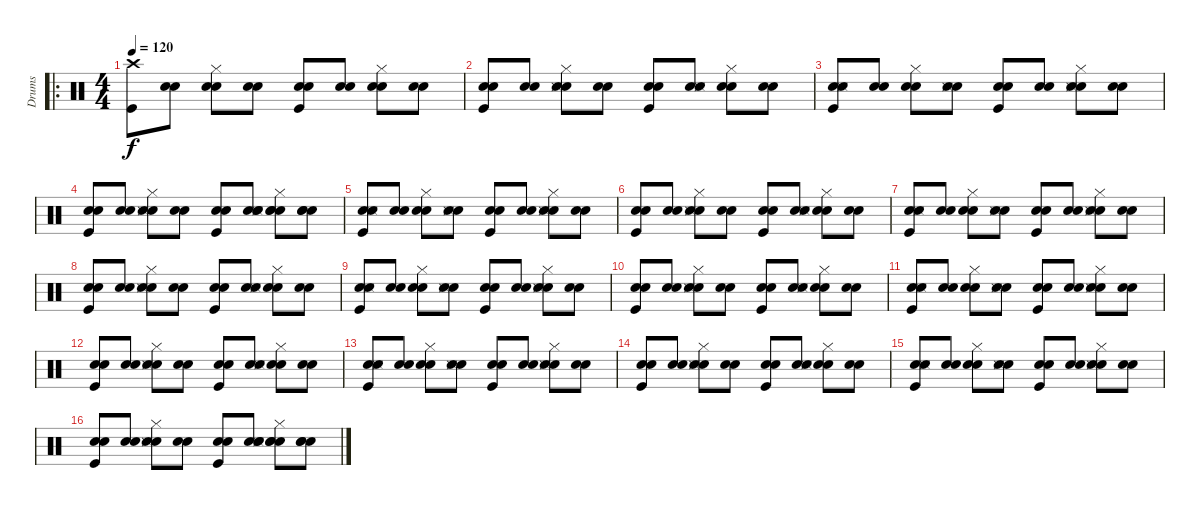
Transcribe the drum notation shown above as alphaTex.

\track ("Drums" "Drums") {instrument percussion}
\staff {score}
\articulation defaults
\ro
\ts (4 4)
\tempo 120
\clef neutral
\ks c
("Kick (hit)" "Crash high (hit)").8{dy f} ("Snare (hit)" "Snare (hit) 2").8 ("Snare (hit)" "Snare (hit) 2" "Hi-Hat (closed)").8 ("Snare (hit)" "Snare (hit) 2").8 ("Snare (hit)" "Kick (hit)" "Snare (hit) 2").8 ("Snare (hit)" "Snare (hit) 2").8 ("Snare (hit)" "Snare (hit) 2" "Hi-Hat (closed)").8 ("Snare (hit)" "Snare (hit) 2").8 |
("Snare (hit)" "Kick (hit)" "Snare (hit) 2").8 ("Snare (hit)" "Snare (hit) 2").8 ("Snare (hit)" "Snare (hit) 2" "Hi-Hat (closed)" "Snare (side stick) 3").8 ("Snare (hit)" "Hand Clap (hit)").8 ("Snare (hit)" "Kick (hit)" "Snare (hit) 2").8 ("Snare (hit)" "Snare (hit) 2" "Snare (side stick) 3").8 ("Snare (hit)" "Snare (hit) 2" "Hi-Hat (closed)").8 ("Snare (hit)" "Snare (hit) 2").8 |
("Snare (hit)" "Kick (hit)" "Snare (hit) 2" "Snare (side stick) 3").8 ("Snare (hit)" "Snare (hit) 2").8 ("Snare (hit)" "Snare (hit) 2" "Hi-Hat (closed)").8 ("Snare (hit)" "Snare (hit) 2" "Snare (side stick) 3").8 ("Snare (hit)" "Kick (hit)" "Snare (hit) 2").8 ("Snare (hit)" "Snare (hit) 2").8 ("Snare (hit)" "Snare (hit) 2" "Hi-Hat (closed)" "Snare (side stick) 3").8 ("Snare (hit)" "Snare (hit) 2").8 |
("Snare (hit)" "Kick (hit)" "Snare (hit) 2").8 ("Snare (hit)" "Snare (hit) 2").8 ("Snare (hit)" "Snare (hit) 2" "Hi-Hat (closed)" "Snare (side stick) 3").8 ("Snare (hit)" "Hand Clap (hit)").8 ("Snare (hit)" "Kick (hit)" "Snare (hit) 2").8 ("Snare (hit)" "Snare (hit) 2" "Snare (side stick) 3" "Hand Clap (hit)").8 ("Snare (hit)" "Snare (hit) 2" "Hi-Hat (closed)" "Hand Clap (hit)").8 ("Snare (hit)" "Snare (hit) 2" "Hand Clap (hit)").8 |
("Snare (hit)" "Kick (hit)" "Snare (hit) 2" "Snare (side stick) 3").8 ("Snare (hit)" "Snare (hit) 2").8 ("Snare (hit)" "Snare (hit) 2" "Hi-Hat (closed)").8 ("Snare (hit)" "Snare (hit) 2" "Snare (side stick) 3").8 ("Snare (hit)" "Kick (hit)" "Snare (hit) 2").8 ("Snare (hit)" "Snare (hit) 2").8 ("Snare (hit)" "Snare (hit) 2" "Hi-Hat (closed)" "Snare (side stick) 3").8 ("Snare (hit)" "Snare (hit) 2").8 |
("Snare (hit)" "Kick (hit)" "Snare (hit) 2").8 ("Snare (hit)" "Snare (hit) 2").8 ("Snare (hit)" "Snare (hit) 2" "Hi-Hat (closed)" "Snare (side stick) 3").8 ("Snare (hit)" "Hand Clap (hit)").8 ("Snare (hit)" "Kick (hit)" "Snare (hit) 2").8 ("Snare (hit)" "Snare (hit) 2" "Snare (side stick) 3").8 ("Snare (hit)" "Snare (hit) 2" "Hi-Hat (closed)").8 ("Snare (hit)" "Snare (hit) 2").8 |
("Snare (hit)" "Kick (hit)" "Snare (hit) 2" "Snare (side stick) 3").8 ("Snare (hit)" "Snare (hit) 2").8 ("Snare (hit)" "Snare (hit) 2" "Hi-Hat (closed)").8 ("Snare (hit)" "Snare (hit) 2" "Snare (side stick) 3").8 ("Snare (hit)" "Kick (hit)" "Snare (hit) 2").8 ("Snare (hit)" "Snare (hit) 2").8 ("Snare (hit)" "Snare (hit) 2" "Hi-Hat (closed)" "Snare (side stick) 3").8 ("Snare (hit)" "Snare (hit) 2").8 |
("Snare (hit)" "Kick (hit)" "Snare (hit) 2").8 ("Snare (hit)" "Snare (hit) 2").8 ("Snare (hit)" "Snare (hit) 2" "Hi-Hat (closed)" "Snare (side stick) 3").8 ("Snare (hit)" "Hand Clap (hit)").8 ("Snare (hit)" "Kick (hit)" "Snare (hit) 2").8 ("Snare (hit)" "Snare (hit) 2" "Snare (side stick) 3").8 ("Snare (hit)" "Snare (hit) 2" "Hi-Hat (closed)").8 ("Snare (hit)" "Snare (hit) 2").8 |
("Snare (hit)" "Kick (hit)" "Snare (hit) 2" "Snare (side stick) 3").8 ("Snare (hit)" "Snare (hit) 2").8 ("Snare (hit)" "Snare (hit) 2" "Hi-Hat (closed)").8 ("Snare (hit)" "Snare (hit) 2" "Snare (side stick) 3").8 ("Snare (hit)" "Kick (hit)" "Snare (hit) 2").8 ("Snare (hit)" "Snare (hit) 2").8 ("Snare (hit)" "Snare (hit) 2" "Hi-Hat (closed)" "Snare (side stick) 3").8 ("Snare (hit)" "Snare (hit) 2").8 |
("Snare (hit)" "Kick (hit)" "Snare (hit) 2").8 ("Snare (hit)" "Snare (hit) 2").8 ("Snare (hit)" "Snare (hit) 2" "Hi-Hat (closed)" "Snare (side stick) 3").8 ("Snare (hit)" "Hand Clap (hit)").8 ("Snare (hit)" "Kick (hit)" "Snare (hit) 2").8 ("Snare (hit)" "Snare (hit) 2" "Snare (side stick) 3").8 ("Snare (hit)" "Snare (hit) 2" "Hi-Hat (closed)").8 ("Snare (hit)" "Snare (hit) 2").8 |
("Snare (hit)" "Kick (hit)" "Snare (hit) 2" "Snare (side stick) 3").8 ("Snare (hit)" "Snare (hit) 2").8 ("Snare (hit)" "Snare (hit) 2" "Hi-Hat (closed)").8 ("Snare (hit)" "Snare (hit) 2" "Snare (side stick) 3").8 ("Snare (hit)" "Kick (hit)" "Snare (hit) 2").8 ("Snare (hit)" "Snare (hit) 2").8 ("Snare (hit)" "Snare (hit) 2" "Hi-Hat (closed)" "Snare (side stick) 3").8 ("Snare (hit)" "Snare (hit) 2").8 |
("Snare (hit)" "Kick (hit)" "Snare (hit) 2").8 ("Snare (hit)" "Snare (hit) 2").8 ("Snare (hit)" "Snare (hit) 2" "Hi-Hat (closed)" "Snare (side stick) 3").8 ("Snare (hit)" "Hand Clap (hit)").8 ("Snare (hit)" "Kick (hit)" "Snare (hit) 2").8 ("Snare (hit)" "Snare (hit) 2" "Snare (side stick) 3").8 ("Snare (hit)" "Snare (hit) 2" "Hi-Hat (closed)").8 ("Snare (hit)" "Snare (hit) 2").8 |
("Snare (hit)" "Kick (hit)" "Snare (hit) 2" "Snare (side stick) 3").8 ("Snare (hit)" "Snare (hit) 2").8 ("Snare (hit)" "Snare (hit) 2" "Hi-Hat (closed)").8 ("Snare (hit)" "Snare (hit) 2" "Snare (side stick) 3").8 ("Snare (hit)" "Kick (hit)" "Snare (hit) 2").8 ("Snare (hit)" "Snare (hit) 2").8 ("Snare (hit)" "Snare (hit) 2" "Hi-Hat (closed)" "Snare (side stick) 3").8 ("Snare (hit)" "Snare (hit) 2").8 |
("Snare (hit)" "Kick (hit)" "Snare (hit) 2").8 ("Snare (hit)" "Snare (hit) 2").8 ("Snare (hit)" "Snare (hit) 2" "Hi-Hat (closed)" "Snare (side stick) 3").8 ("Snare (hit)" "Hand Clap (hit)").8 ("Snare (hit)" "Kick (hit)" "Snare (hit) 2").8 ("Snare (hit)" "Snare (hit) 2" "Snare (side stick) 3").8 ("Snare (hit)" "Snare (hit) 2" "Hi-Hat (closed)").8 ("Snare (hit)" "Snare (hit) 2").8 |
("Snare (hit)" "Kick (hit)" "Snare (hit) 2" "Snare (side stick) 3").8 ("Snare (hit)" "Snare (hit) 2").8 ("Snare (hit)" "Snare (hit) 2" "Hi-Hat (closed)").8 ("Snare (hit)" "Snare (hit) 2" "Snare (side stick) 3").8 ("Snare (hit)" "Kick (hit)" "Snare (hit) 2").8 ("Snare (hit)" "Snare (hit) 2").8 ("Snare (hit)" "Snare (hit) 2" "Hi-Hat (closed)" "Snare (side stick) 3").8 ("Snare (hit)" "Snare (hit) 2").8 |
("Snare (hit)" "Kick (hit)" "Snare (hit) 2").8 ("Snare (hit)" "Snare (hit) 2").8 ("Snare (hit)" "Snare (hit) 2" "Hi-Hat (closed)" "Snare (side stick) 3").8 ("Snare (hit)" "Hand Clap (hit)").8 ("Snare (hit)" "Kick (hit)" "Snare (hit) 2").8 ("Snare (hit)" "Snare (hit) 2" "Snare (side stick) 3" "Hand Clap (hit)").8 ("Snare (hit)" "Snare (hit) 2" "Hi-Hat (closed)" "Hand Clap (hit)").8 ("Snare (hit)" "Snare (hit) 2" "Hand Clap (hit)").8
